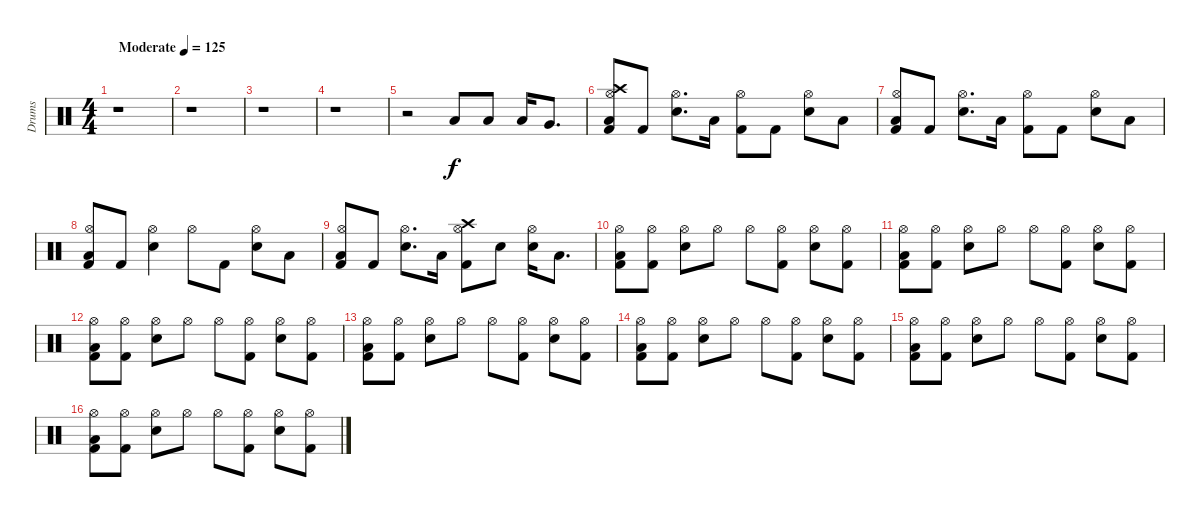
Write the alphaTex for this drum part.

\track ("Drums" "Drums") {instrument percussion}
\staff {score}
\articulation defaults
\ts (4 4)
\tempo (125 "Moderate")
\clef neutral
\ks c
r.1{dy f} |
r.1 |
r.1 |
r.1 |
r.2 "Low Tom (hit)".8 "Low Tom (hit)".8 "Low Tom (hit)".16 "Very Low Tom (hit)".8{d} |
("Hi-Hat (open)" "Crash high (hit)" "Low Tom (hit)" "Kick (hit) 2").8 "Kick (hit) 2".8 ("Hi-Hat (open)" "Snare (hit) 2").8{d} "Low Tom (hit)".16 ("Hi-Hat (open)" "Kick (hit) 2").8 "Kick (hit) 2".8 ("Hi-Hat (open)" "Snare (hit) 2").8 "Low Tom (hit)".8 |
("Hi-Hat (open)" "Low Tom (hit)" "Kick (hit) 2").8 "Kick (hit) 2".8 ("Hi-Hat (open)" "Snare (hit) 2").8{d} "Low Tom (hit)".16 ("Hi-Hat (open)" "Kick (hit) 2").8 "Kick (hit) 2".8 ("Hi-Hat (open)" "Snare (hit) 2").8 "Low Tom (hit)".8 |
("Hi-Hat (open)" "Low Tom (hit)" "Kick (hit) 2").8 "Kick (hit) 2".8 ("Hi-Hat (open)" "Snare (hit) 2").4 "Hi-Hat (open)".8 "Kick (hit) 2".8 ("Hi-Hat (open)" "Snare (hit) 2").8 "Low Tom (hit)".8 |
("Hi-Hat (open)" "Low Tom (hit)" "Kick (hit) 2").8 "Kick (hit) 2".8 ("Hi-Hat (open)" "Snare (hit) 2").8{d} "Low Tom (hit)".16 ("Hi-Hat (open)" "Crash high (hit)" "Kick (hit) 2").8 "Snare (hit) 2".8 ("Hi-Hat (open)" "Electric Snare (hit)").16 "Low Tom (hit)".8{d} |
("Hi-Hat (open)" "Low Tom (hit)" "Kick (hit) 2").8 ("Hi-Hat (open)" "Kick (hit) 2").8 ("Hi-Hat (open)" "Snare (hit) 2").8 "Hi-Hat (open)".8 "Hi-Hat (open)".8 ("Hi-Hat (open)" "Kick (hit) 2").8 ("Hi-Hat (open)" "Snare (hit) 2").8 ("Hi-Hat (open)" "Kick (hit) 2").8 |
("Hi-Hat (open)" "Low Tom (hit)" "Kick (hit) 2").8 ("Hi-Hat (open)" "Kick (hit) 2").8 ("Hi-Hat (open)" "Snare (hit) 2").8 "Hi-Hat (open)".8 "Hi-Hat (open)".8 ("Hi-Hat (open)" "Kick (hit) 2").8 ("Hi-Hat (open)" "Snare (hit) 2").8 ("Hi-Hat (open)" "Kick (hit) 2").8 |
("Hi-Hat (open)" "Low Tom (hit)" "Kick (hit) 2").8 ("Hi-Hat (open)" "Kick (hit) 2").8 ("Hi-Hat (open)" "Snare (hit) 2").8 "Hi-Hat (open)".8 "Hi-Hat (open)".8 ("Hi-Hat (open)" "Kick (hit) 2").8 ("Hi-Hat (open)" "Snare (hit) 2").8 ("Hi-Hat (open)" "Kick (hit) 2").8 |
("Hi-Hat (open)" "Low Tom (hit)" "Kick (hit) 2").8 ("Hi-Hat (open)" "Kick (hit) 2").8 ("Hi-Hat (open)" "Snare (hit) 2").8 "Hi-Hat (open)".8 "Hi-Hat (open)".8 ("Hi-Hat (open)" "Kick (hit) 2").8 ("Hi-Hat (open)" "Snare (hit) 2").8 ("Hi-Hat (open)" "Kick (hit) 2").8 |
("Hi-Hat (open)" "Low Tom (hit)" "Kick (hit) 2").8 ("Hi-Hat (open)" "Kick (hit) 2").8 ("Hi-Hat (open)" "Snare (hit) 2").8 "Hi-Hat (open)".8 "Hi-Hat (open)".8 ("Hi-Hat (open)" "Kick (hit) 2").8 ("Hi-Hat (open)" "Snare (hit) 2").8 ("Hi-Hat (open)" "Kick (hit) 2").8 |
("Hi-Hat (open)" "Low Tom (hit)" "Kick (hit) 2").8 ("Hi-Hat (open)" "Kick (hit) 2").8 ("Hi-Hat (open)" "Snare (hit) 2").8 "Hi-Hat (open)".8 "Hi-Hat (open)".8 ("Hi-Hat (open)" "Kick (hit) 2").8 ("Hi-Hat (open)" "Snare (hit) 2").8 ("Hi-Hat (open)" "Kick (hit) 2").8 |
("Hi-Hat (open)" "Low Tom (hit)" "Kick (hit) 2").8 ("Hi-Hat (open)" "Kick (hit) 2").8 ("Hi-Hat (open)" "Snare (hit) 2").8 "Hi-Hat (open)".8 "Hi-Hat (open)".8 ("Hi-Hat (open)" "Kick (hit) 2").8 ("Hi-Hat (open)" "Snare (hit) 2").8 ("Hi-Hat (open)" "Kick (hit) 2").8
